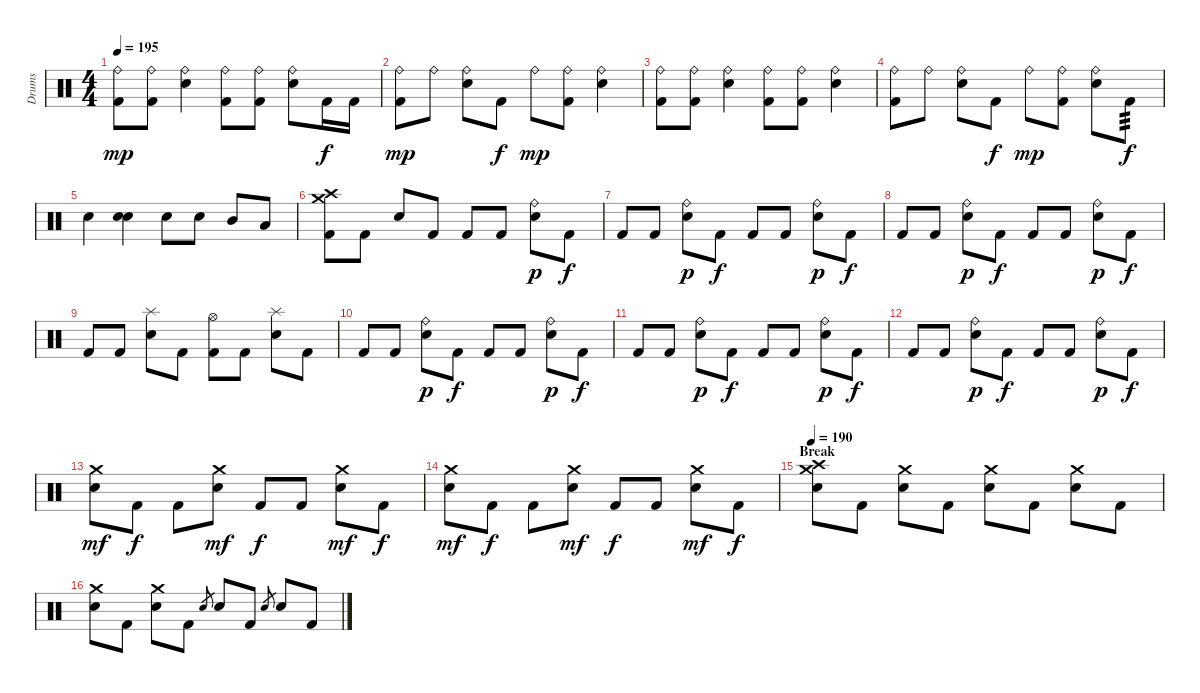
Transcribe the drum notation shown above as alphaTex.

\track ("Drums" "Drums") {instrument percussion}
\staff {score}
\articulation defaults
\ts (4 4)
\tempo 195
\clef neutral
\ks c
("Ride (bell)" "Kick (hit) 2").8{dy mp} ("Ride (bell)" "Kick (hit) 2").8 ("Ride (bell)" "Electric Snare (hit)").4 ("Ride (bell)" "Kick (hit) 2").8 ("Ride (bell)" "Kick (hit) 2").8 ("Ride (bell)" "Electric Snare (hit)").8 "Kick (hit) 2".16{dy f} "Kick (hit) 2".16 |
("Ride (bell)" "Kick (hit) 2").8{dy mp} "Ride (bell)".8 ("Ride (bell)" "Electric Snare (hit)").8 "Kick (hit) 2".8{dy f} "Ride (bell)".8{dy mp} ("Ride (bell)" "Kick (hit) 2").8 ("Ride (bell)" "Electric Snare (hit)").4 |
("Ride (bell)" "Kick (hit) 2").8 ("Ride (bell)" "Kick (hit) 2").8 ("Ride (bell)" "Electric Snare (hit)").4 ("Ride (bell)" "Kick (hit) 2").8 ("Ride (bell)" "Kick (hit) 2").8 ("Ride (bell)" "Electric Snare (hit)").4 |
("Ride (bell)" "Kick (hit) 2").8 "Ride (bell)".8 ("Ride (bell)" "Electric Snare (hit)").8 "Kick (hit) 2".8{dy f} "Ride (bell)".8{dy mp} ("Ride (bell)" "Kick (hit) 2").8 ("Ride (bell)" "Electric Snare (hit)").8 "Kick (hit) 2".8{tp 3 dy f} |
"Electric Snare (hit)".4 ("Electric Snare (hit)" "Electric Snare (hit)").4{bd 240} "Electric Snare (hit)".8 "Electric Snare (hit)".8 "Mid Tom (hit)".8 "Low Tom (hit)".8 |
("Crash medium (hit)" "Crash high (hit)" "Kick (hit) 2").8 "Kick (hit) 2".8 "Electric Snare (hit)".8 "Kick (hit) 2".8 "Kick (hit) 2".8 "Kick (hit) 2".8 ("Ride (bell)" "Electric Snare (hit)").8{dy p} "Kick (hit) 2".8{dy f} |
"Kick (hit) 2".8 "Kick (hit) 2".8 ("Ride (bell)" "Electric Snare (hit)").8{dy p} "Kick (hit) 2".8{dy f} "Kick (hit) 2".8 "Kick (hit) 2".8 ("Ride (bell)" "Electric Snare (hit)").8{dy p} "Kick (hit) 2".8{dy f} |
"Kick (hit) 2".8 "Kick (hit) 2".8 ("Ride (bell)" "Electric Snare (hit)").8{dy p} "Kick (hit) 2".8{dy f} "Kick (hit) 2".8 "Kick (hit) 2".8 ("Ride (bell)" "Electric Snare (hit)").8{dy p} "Kick (hit) 2".8{dy f} |
"Kick (hit) 2".8 "Kick (hit) 2".8 ("Splash (hit)" "Electric Snare (hit)").8 "Kick (hit) 2".8 ("Hi-Hat (open)" "Kick (hit) 2").8 "Kick (hit) 2".8 ("Splash (hit)" "Electric Snare (hit)").8 "Kick (hit) 2".8 |
"Kick (hit) 2".8 "Kick (hit) 2".8 ("Ride (bell)" "Electric Snare (hit)").8{dy p} "Kick (hit) 2".8{dy f} "Kick (hit) 2".8 "Kick (hit) 2".8 ("Ride (bell)" "Electric Snare (hit)").8{dy p} "Kick (hit) 2".8{dy f} |
"Kick (hit) 2".8 "Kick (hit) 2".8 ("Ride (bell)" "Electric Snare (hit)").8{dy p} "Kick (hit) 2".8{dy f} "Kick (hit) 2".8 "Kick (hit) 2".8 ("Ride (bell)" "Electric Snare (hit)").8{dy p} "Kick (hit) 2".8{dy f} |
"Kick (hit) 2".8 "Kick (hit) 2".8 ("Ride (bell)" "Electric Snare (hit)").8{dy p} "Kick (hit) 2".8{dy f} "Kick (hit) 2".8 "Kick (hit) 2".8 ("Ride (bell)" "Electric Snare (hit)").8{dy p} "Kick (hit) 2".8{dy f} |
("Crash medium (hit)" "Electric Snare (hit)").8{dy mf} "Kick (hit) 2".8{dy f} "Kick (hit) 2".8 ("Crash medium (hit)" "Electric Snare (hit)").8{dy mf} "Kick (hit) 2".8{dy f} "Kick (hit) 2".8 ("Crash medium (hit)" "Electric Snare (hit)").8{dy mf} "Kick (hit) 2".8{dy f} |
("Crash medium (hit)" "Electric Snare (hit)").8{dy mf} "Kick (hit) 2".8{dy f} "Kick (hit) 2".8 ("Crash medium (hit)" "Electric Snare (hit)").8{dy mf} "Kick (hit) 2".8{dy f} "Kick (hit) 2".8 ("Crash medium (hit)" "Electric Snare (hit)").8{dy mf} "Kick (hit) 2".8{dy f} |
\section ("" "Break")
\tempo 190
("Crash medium (hit)" "Crash high (hit)" "Electric Snare (hit)").8 "Kick (hit) 2".8 ("Crash medium (hit)" "Electric Snare (hit)").8 "Kick (hit) 2".8 ("Crash medium (hit)" "Electric Snare (hit)").8 "Kick (hit) 2".8 ("Crash medium (hit)" "Electric Snare (hit)").8 "Kick (hit) 2".8 |
("Crash medium (hit)" "Electric Snare (hit)").8 "Kick (hit) 2".8 ("Crash medium (hit)" "Electric Snare (hit)").8 "Kick (hit) 2".8 "Electric Snare (hit)".8{gr} "Electric Snare (hit)".8 "Kick (hit) 2".8 "Electric Snare (hit)".8{gr} "Electric Snare (hit)".8 "Kick (hit) 2".8
